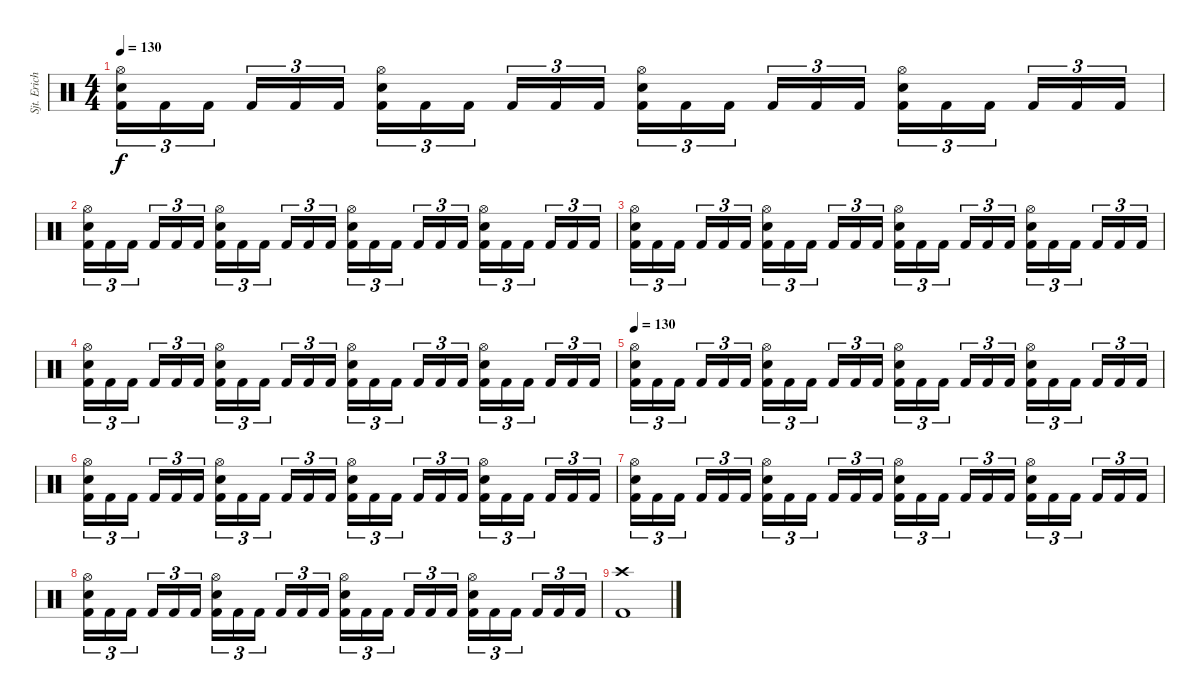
\track ("Sjt. Erichsen" "Sjt. Erich") {instrument percussion}
\staff {score}
\articulation defaults
\ts (4 4)
\tempo 130
\clef neutral
\ks c
("Hi-Hat (open)" "Electric Snare (hit)" "Kick (hit) 2").16{tu (3 2) dy f} "Kick (hit) 2".16{tu (3 2)} "Kick (hit) 2".16{tu (3 2)} "Kick (hit) 2".16{tu (3 2)} "Kick (hit) 2".16{tu (3 2)} "Kick (hit) 2".16{tu (3 2)} ("Hi-Hat (open)" "Electric Snare (hit)" "Kick (hit) 2").16{tu (3 2)} "Kick (hit) 2".16{tu (3 2)} "Kick (hit) 2".16{tu (3 2)} "Kick (hit) 2".16{tu (3 2)} "Kick (hit) 2".16{tu (3 2)} "Kick (hit) 2".16{tu (3 2)} ("Hi-Hat (open)" "Electric Snare (hit)" "Kick (hit) 2").16{tu (3 2)} "Kick (hit) 2".16{tu (3 2)} "Kick (hit) 2".16{tu (3 2)} "Kick (hit) 2".16{tu (3 2)} "Kick (hit) 2".16{tu (3 2)} "Kick (hit) 2".16{tu (3 2)} ("Hi-Hat (open)" "Electric Snare (hit)" "Kick (hit) 2").16{tu (3 2)} "Kick (hit) 2".16{tu (3 2)} "Kick (hit) 2".16{tu (3 2)} "Kick (hit) 2".16{tu (3 2)} "Kick (hit) 2".16{tu (3 2)} "Kick (hit) 2".16{tu (3 2)} |
("Hi-Hat (open)" "Electric Snare (hit)" "Kick (hit) 2").16{tu (3 2)} "Kick (hit) 2".16{tu (3 2)} "Kick (hit) 2".16{tu (3 2)} "Kick (hit) 2".16{tu (3 2)} "Kick (hit) 2".16{tu (3 2)} "Kick (hit) 2".16{tu (3 2)} ("Hi-Hat (open)" "Electric Snare (hit)" "Kick (hit) 2").16{tu (3 2)} "Kick (hit) 2".16{tu (3 2)} "Kick (hit) 2".16{tu (3 2)} "Kick (hit) 2".16{tu (3 2)} "Kick (hit) 2".16{tu (3 2)} "Kick (hit) 2".16{tu (3 2)} ("Hi-Hat (open)" "Electric Snare (hit)" "Kick (hit) 2").16{tu (3 2)} "Kick (hit) 2".16{tu (3 2)} "Kick (hit) 2".16{tu (3 2)} "Kick (hit) 2".16{tu (3 2)} "Kick (hit) 2".16{tu (3 2)} "Kick (hit) 2".16{tu (3 2)} ("Hi-Hat (open)" "Electric Snare (hit)" "Kick (hit) 2").16{tu (3 2)} "Kick (hit) 2".16{tu (3 2)} "Kick (hit) 2".16{tu (3 2)} "Kick (hit) 2".16{tu (3 2)} "Kick (hit) 2".16{tu (3 2)} "Kick (hit) 2".16{tu (3 2)} |
("Hi-Hat (open)" "Electric Snare (hit)" "Kick (hit) 2").16{tu (3 2)} "Kick (hit) 2".16{tu (3 2)} "Kick (hit) 2".16{tu (3 2)} "Kick (hit) 2".16{tu (3 2)} "Kick (hit) 2".16{tu (3 2)} "Kick (hit) 2".16{tu (3 2)} ("Hi-Hat (open)" "Electric Snare (hit)" "Kick (hit) 2").16{tu (3 2)} "Kick (hit) 2".16{tu (3 2)} "Kick (hit) 2".16{tu (3 2)} "Kick (hit) 2".16{tu (3 2)} "Kick (hit) 2".16{tu (3 2)} "Kick (hit) 2".16{tu (3 2)} ("Hi-Hat (open)" "Electric Snare (hit)" "Kick (hit) 2").16{tu (3 2)} "Kick (hit) 2".16{tu (3 2)} "Kick (hit) 2".16{tu (3 2)} "Kick (hit) 2".16{tu (3 2)} "Kick (hit) 2".16{tu (3 2)} "Kick (hit) 2".16{tu (3 2)} ("Hi-Hat (open)" "Electric Snare (hit)" "Kick (hit) 2").16{tu (3 2)} "Kick (hit) 2".16{tu (3 2)} "Kick (hit) 2".16{tu (3 2)} "Kick (hit) 2".16{tu (3 2)} "Kick (hit) 2".16{tu (3 2)} "Kick (hit) 2".16{tu (3 2)} |
("Hi-Hat (open)" "Electric Snare (hit)" "Kick (hit) 2").16{tu (3 2)} "Kick (hit) 2".16{tu (3 2)} "Kick (hit) 2".16{tu (3 2)} "Kick (hit) 2".16{tu (3 2)} "Kick (hit) 2".16{tu (3 2)} "Kick (hit) 2".16{tu (3 2)} ("Hi-Hat (open)" "Electric Snare (hit)" "Kick (hit) 2").16{tu (3 2)} "Kick (hit) 2".16{tu (3 2)} "Kick (hit) 2".16{tu (3 2)} "Kick (hit) 2".16{tu (3 2)} "Kick (hit) 2".16{tu (3 2)} "Kick (hit) 2".16{tu (3 2)} ("Hi-Hat (open)" "Electric Snare (hit)" "Kick (hit) 2").16{tu (3 2)} "Kick (hit) 2".16{tu (3 2)} "Kick (hit) 2".16{tu (3 2)} "Kick (hit) 2".16{tu (3 2)} "Kick (hit) 2".16{tu (3 2)} "Kick (hit) 2".16{tu (3 2)} ("Hi-Hat (open)" "Electric Snare (hit)" "Kick (hit) 2").16{tu (3 2)} "Kick (hit) 2".16{tu (3 2)} "Kick (hit) 2".16{tu (3 2)} "Kick (hit) 2".16{tu (3 2)} "Kick (hit) 2".16{tu (3 2)} "Kick (hit) 2".16{tu (3 2)} |
\tempo 130
("Hi-Hat (open)" "Electric Snare (hit)" "Kick (hit) 2").16{tu (3 2)} "Kick (hit) 2".16{tu (3 2)} "Kick (hit) 2".16{tu (3 2)} "Kick (hit) 2".16{tu (3 2)} "Kick (hit) 2".16{tu (3 2)} "Kick (hit) 2".16{tu (3 2)} ("Hi-Hat (open)" "Electric Snare (hit)" "Kick (hit) 2").16{tu (3 2)} "Kick (hit) 2".16{tu (3 2)} "Kick (hit) 2".16{tu (3 2)} "Kick (hit) 2".16{tu (3 2)} "Kick (hit) 2".16{tu (3 2)} "Kick (hit) 2".16{tu (3 2)} ("Hi-Hat (open)" "Electric Snare (hit)" "Kick (hit) 2").16{tu (3 2)} "Kick (hit) 2".16{tu (3 2)} "Kick (hit) 2".16{tu (3 2)} "Kick (hit) 2".16{tu (3 2)} "Kick (hit) 2".16{tu (3 2)} "Kick (hit) 2".16{tu (3 2)} ("Hi-Hat (open)" "Electric Snare (hit)" "Kick (hit) 2").16{tu (3 2)} "Kick (hit) 2".16{tu (3 2)} "Kick (hit) 2".16{tu (3 2)} "Kick (hit) 2".16{tu (3 2)} "Kick (hit) 2".16{tu (3 2)} "Kick (hit) 2".16{tu (3 2)} |
("Hi-Hat (open)" "Electric Snare (hit)" "Kick (hit) 2").16{tu (3 2)} "Kick (hit) 2".16{tu (3 2)} "Kick (hit) 2".16{tu (3 2)} "Kick (hit) 2".16{tu (3 2)} "Kick (hit) 2".16{tu (3 2)} "Kick (hit) 2".16{tu (3 2)} ("Hi-Hat (open)" "Electric Snare (hit)" "Kick (hit) 2").16{tu (3 2)} "Kick (hit) 2".16{tu (3 2)} "Kick (hit) 2".16{tu (3 2)} "Kick (hit) 2".16{tu (3 2)} "Kick (hit) 2".16{tu (3 2)} "Kick (hit) 2".16{tu (3 2)} ("Hi-Hat (open)" "Electric Snare (hit)" "Kick (hit) 2").16{tu (3 2)} "Kick (hit) 2".16{tu (3 2)} "Kick (hit) 2".16{tu (3 2)} "Kick (hit) 2".16{tu (3 2)} "Kick (hit) 2".16{tu (3 2)} "Kick (hit) 2".16{tu (3 2)} ("Hi-Hat (open)" "Electric Snare (hit)" "Kick (hit) 2").16{tu (3 2)} "Kick (hit) 2".16{tu (3 2)} "Kick (hit) 2".16{tu (3 2)} "Kick (hit) 2".16{tu (3 2)} "Kick (hit) 2".16{tu (3 2)} "Kick (hit) 2".16{tu (3 2)} |
("Hi-Hat (open)" "Electric Snare (hit)" "Kick (hit) 2").16{tu (3 2)} "Kick (hit) 2".16{tu (3 2)} "Kick (hit) 2".16{tu (3 2)} "Kick (hit) 2".16{tu (3 2)} "Kick (hit) 2".16{tu (3 2)} "Kick (hit) 2".16{tu (3 2)} ("Hi-Hat (open)" "Electric Snare (hit)" "Kick (hit) 2").16{tu (3 2)} "Kick (hit) 2".16{tu (3 2)} "Kick (hit) 2".16{tu (3 2)} "Kick (hit) 2".16{tu (3 2)} "Kick (hit) 2".16{tu (3 2)} "Kick (hit) 2".16{tu (3 2)} ("Hi-Hat (open)" "Electric Snare (hit)" "Kick (hit) 2").16{tu (3 2)} "Kick (hit) 2".16{tu (3 2)} "Kick (hit) 2".16{tu (3 2)} "Kick (hit) 2".16{tu (3 2)} "Kick (hit) 2".16{tu (3 2)} "Kick (hit) 2".16{tu (3 2)} ("Hi-Hat (open)" "Electric Snare (hit)" "Kick (hit) 2").16{tu (3 2)} "Kick (hit) 2".16{tu (3 2)} "Kick (hit) 2".16{tu (3 2)} "Kick (hit) 2".16{tu (3 2)} "Kick (hit) 2".16{tu (3 2)} "Kick (hit) 2".16{tu (3 2)} |
("Hi-Hat (open)" "Electric Snare (hit)" "Kick (hit) 2").16{tu (3 2)} "Kick (hit) 2".16{tu (3 2)} "Kick (hit) 2".16{tu (3 2)} "Kick (hit) 2".16{tu (3 2)} "Kick (hit) 2".16{tu (3 2)} "Kick (hit) 2".16{tu (3 2)} ("Hi-Hat (open)" "Electric Snare (hit)" "Kick (hit) 2").16{tu (3 2)} "Kick (hit) 2".16{tu (3 2)} "Kick (hit) 2".16{tu (3 2)} "Kick (hit) 2".16{tu (3 2)} "Kick (hit) 2".16{tu (3 2)} "Kick (hit) 2".16{tu (3 2)} ("Hi-Hat (open)" "Electric Snare (hit)" "Kick (hit) 2").16{tu (3 2)} "Kick (hit) 2".16{tu (3 2)} "Kick (hit) 2".16{tu (3 2)} "Kick (hit) 2".16{tu (3 2)} "Kick (hit) 2".16{tu (3 2)} "Kick (hit) 2".16{tu (3 2)} ("Hi-Hat (open)" "Electric Snare (hit)" "Kick (hit) 2").16{tu (3 2)} "Kick (hit) 2".16{tu (3 2)} "Kick (hit) 2".16{tu (3 2)} "Kick (hit) 2".16{tu (3 2)} "Kick (hit) 2".16{tu (3 2)} "Kick (hit) 2".16{tu (3 2)} |
("Crash high (hit)" "Kick (hit) 2").1
